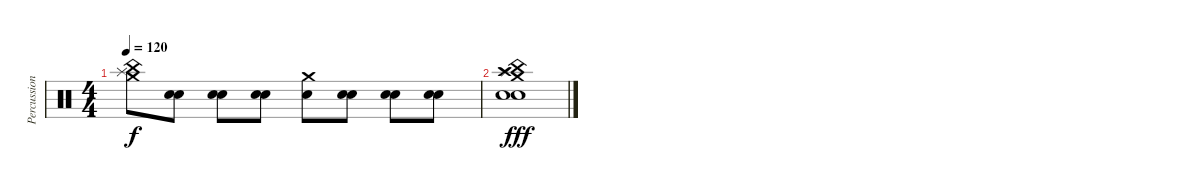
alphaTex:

\track ("Percussioni" "Percussion") {instrument percussion}
\staff {score}
\articulation defaults
\ts (4 4)
\tempo 120
\clef neutral
\ks c
("Crash medium (hit)" "China (hit)" "Splash (hit)").8{dy f} ("Electric Snare (hit)" "Snare (hit) 2").8 ("Electric Snare (hit)" "Snare (hit) 2").8 ("Electric Snare (hit)" "Snare (hit) 2").8 ("Crash medium (hit)" "Snare (hit) 2").8 ("Electric Snare (hit)" "Snare (hit) 2").8 ("Electric Snare (hit)" "Snare (hit) 2").8 ("Electric Snare (hit)" "Snare (hit) 2").8 |
("Snare (hit) 2" "Electric Snare (hit)" "Crash medium (hit)" "China (hit)" "Splash (hit)" "Crash high (hit)").1{dy fff}
